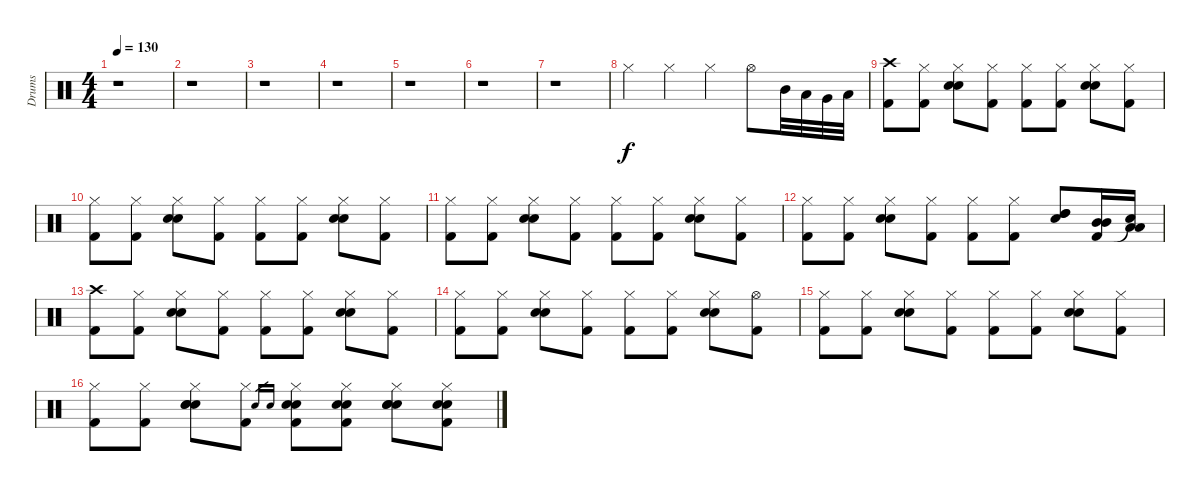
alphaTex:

\track ("Drums" "Drums") {instrument percussion}
\staff {score}
\articulation defaults
\ts (4 4)
\tempo 130
\clef neutral
\ks c
r.1{dy f} |
r.1 |
r.1 |
r.1 |
r.1 |
r.1 |
r.1 |
"Hi-Hat (closed)".4 "Hi-Hat (closed)".4 "Hi-Hat (closed)".4 "Hi-Hat (open)".8 "Mid Tom (hit)".32 "Low Tom (hit)".32 "Very Low Tom (hit)".32 "Low Floor Tom (hit)".32 |
("Crash high (hit)" "Kick (hit) 2").8 ("Hi-Hat (closed)" "Kick (hit) 2").8 ("Hi-Hat (closed)" "Electric Snare (hit)" "Snare (hit) 2").8 ("Hi-Hat (closed)" "Kick (hit) 2").8 ("Hi-Hat (closed)" "Kick (hit) 2").8 ("Hi-Hat (closed)" "Kick (hit) 2").8 ("Hi-Hat (closed)" "Electric Snare (hit)" "Snare (hit) 2").8 ("Hi-Hat (closed)" "Kick (hit) 2").8 |
("Hi-Hat (closed)" "Kick (hit) 2").8 ("Hi-Hat (closed)" "Kick (hit) 2").8 ("Hi-Hat (closed)" "Electric Snare (hit)" "Snare (hit) 2").8 ("Hi-Hat (closed)" "Kick (hit) 2").8 ("Hi-Hat (closed)" "Kick (hit) 2").8 ("Hi-Hat (closed)" "Kick (hit) 2").8 ("Hi-Hat (closed)" "Electric Snare (hit)" "Snare (hit) 2").8 ("Hi-Hat (closed)" "Kick (hit) 2").8 |
("Hi-Hat (closed)" "Kick (hit) 2").8 ("Hi-Hat (closed)" "Kick (hit) 2").8 ("Hi-Hat (closed)" "Electric Snare (hit)" "Snare (hit) 2").8 ("Hi-Hat (closed)" "Kick (hit) 2").8 ("Hi-Hat (closed)" "Kick (hit) 2").8 ("Hi-Hat (closed)" "Kick (hit) 2").8 ("Hi-Hat (closed)" "Electric Snare (hit)" "Snare (hit) 2").8 ("Hi-Hat (closed)" "Kick (hit) 2").8 |
("Hi-Hat (closed)" "Kick (hit) 2").8 ("Hi-Hat (closed)" "Kick (hit) 2").8 ("Hi-Hat (closed)" "Electric Snare (hit)" "Snare (hit) 2").8 ("Hi-Hat (closed)" "Kick (hit) 2").8 ("Hi-Hat (closed)" "Kick (hit) 2").8 ("Hi-Hat (closed)" "Kick (hit) 2").8 ("High Tom (hit)" "High Tom (hit)" "Snare (hit) 2").8 ("Mid Tom (hit)" "Mid Tom (hit)" "Kick (hit) 2").16 ("Low Tom (hit)" "Low Tom (hit)" "Snare (hit)"{t}).16 |
("Crash high (hit)" "Kick (hit) 2").8 ("Hi-Hat (closed)" "Kick (hit) 2").8 ("Hi-Hat (closed)" "Electric Snare (hit)" "Snare (hit) 2").8 ("Hi-Hat (closed)" "Kick (hit) 2").8 ("Hi-Hat (closed)" "Kick (hit) 2").8 ("Hi-Hat (closed)" "Kick (hit) 2").8 ("Hi-Hat (closed)" "Electric Snare (hit)" "Snare (hit) 2").8 ("Hi-Hat (closed)" "Kick (hit) 2").8 |
("Hi-Hat (closed)" "Kick (hit) 2").8 ("Hi-Hat (closed)" "Kick (hit) 2").8 ("Hi-Hat (closed)" "Electric Snare (hit)" "Snare (hit) 2").8 ("Hi-Hat (closed)" "Kick (hit) 2").8 ("Hi-Hat (closed)" "Kick (hit) 2").8 ("Hi-Hat (closed)" "Kick (hit) 2").8 ("Hi-Hat (closed)" "Electric Snare (hit)" "Snare (hit) 2").8 ("Hi-Hat (open)" "Kick (hit) 2").8 |
("Hi-Hat (closed)" "Kick (hit) 2").8 ("Hi-Hat (closed)" "Kick (hit) 2").8 ("Hi-Hat (closed)" "Electric Snare (hit)" "Snare (hit) 2").8 ("Hi-Hat (closed)" "Kick (hit) 2").8 ("Hi-Hat (closed)" "Kick (hit) 2").8 ("Hi-Hat (closed)" "Kick (hit) 2").8 ("Hi-Hat (closed)" "Electric Snare (hit)" "Snare (hit) 2").8 ("Hi-Hat (closed)" "Kick (hit) 2").8 |
("Hi-Hat (closed)" "Kick (hit) 2").8 ("Hi-Hat (closed)" "Kick (hit) 2").8 ("Hi-Hat (closed)" "Electric Snare (hit)" "Electric Snare (hit)" "Snare (hit) 2").8 ("Hi-Hat (closed)" "Kick (hit) 2").8 "Electric Snare (hit)".16{gr} "Electric Snare (hit)".16{gr} ("Hi-Hat (closed)" "Electric Snare (hit)" "Electric Snare (hit)" "Kick (hit) 2").8 ("Hi-Hat (closed)" "Electric Snare (hit)" "Electric Snare (hit)" "Kick (hit) 2").8 ("Hi-Hat (closed)" "Electric Snare (hit)" "Electric Snare (hit)" "Snare (hit) 2").8 ("Hi-Hat (closed)" "Electric Snare (hit)" "Electric Snare (hit)" "Kick (hit) 2").8
